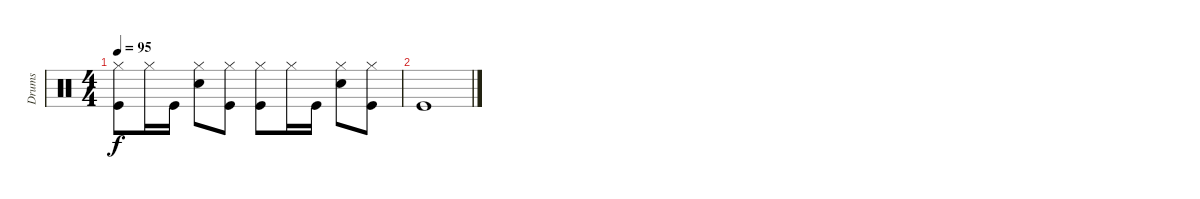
\track ("Drums" "Drums") {instrument percussion}
\staff {score}
\articulation defaults
\ts (4 4)
\tempo 95
\clef neutral
\ks c
("Hi-Hat (closed)" "Kick (hit)").8{dy f} "Hi-Hat (closed)".16 "Kick (hit)".16 ("Hi-Hat (closed)" "Electric Snare (hit)").8 ("Hi-Hat (closed)" "Kick (hit)").8 ("Hi-Hat (closed)" "Kick (hit)").8 "Hi-Hat (closed)".16 "Kick (hit)".16 ("Hi-Hat (closed)" "Electric Snare (hit)").8 ("Hi-Hat (closed)" "Kick (hit)").8 |
"Kick (hit)".1
